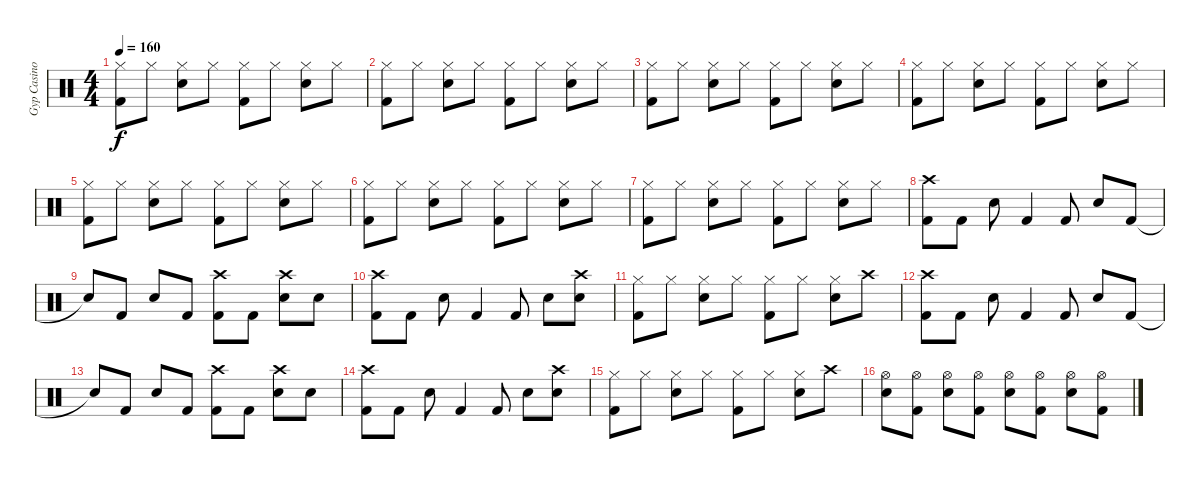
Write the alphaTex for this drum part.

\track ("Gyp Casino" "Gyp Casino") {instrument percussion}
\staff {score}
\articulation defaults
\ts (4 4)
\tempo 160
\clef neutral
\ks c
("Hi-Hat (closed)" "Kick (hit) 2").8{dy f} "Hi-Hat (closed)".8 ("Hi-Hat (closed)" "Snare (hit) 2").8 "Hi-Hat (closed)".8 ("Hi-Hat (closed)" "Kick (hit) 2").8 "Hi-Hat (closed)".8 ("Hi-Hat (closed)" "Snare (hit) 2").8 "Hi-Hat (closed)".8 |
("Hi-Hat (closed)" "Kick (hit) 2").8 "Hi-Hat (closed)".8 ("Hi-Hat (closed)" "Snare (hit) 2").8 "Hi-Hat (closed)".8 ("Hi-Hat (closed)" "Kick (hit) 2").8 "Hi-Hat (closed)".8 ("Hi-Hat (closed)" "Snare (hit) 2").8 "Hi-Hat (closed)".8 |
("Hi-Hat (closed)" "Kick (hit) 2").8 "Hi-Hat (closed)".8 ("Hi-Hat (closed)" "Snare (hit) 2").8 "Hi-Hat (closed)".8 ("Hi-Hat (closed)" "Kick (hit) 2").8 "Hi-Hat (closed)".8 ("Hi-Hat (closed)" "Snare (hit) 2").8 "Hi-Hat (closed)".8 |
("Hi-Hat (closed)" "Kick (hit) 2").8 "Hi-Hat (closed)".8 ("Hi-Hat (closed)" "Snare (hit) 2").8 "Hi-Hat (closed)".8 ("Hi-Hat (closed)" "Kick (hit) 2").8 "Hi-Hat (closed)".8 ("Hi-Hat (closed)" "Snare (hit) 2").8 "Hi-Hat (closed)".8 |
("Hi-Hat (closed)" "Kick (hit) 2").8 "Hi-Hat (closed)".8 ("Hi-Hat (closed)" "Snare (hit) 2").8 "Hi-Hat (closed)".8 ("Hi-Hat (closed)" "Kick (hit) 2").8 "Hi-Hat (closed)".8 ("Hi-Hat (closed)" "Snare (hit) 2").8 "Hi-Hat (closed)".8 |
("Hi-Hat (closed)" "Kick (hit) 2").8 "Hi-Hat (closed)".8 ("Hi-Hat (closed)" "Snare (hit) 2").8 "Hi-Hat (closed)".8 ("Hi-Hat (closed)" "Kick (hit) 2").8 "Hi-Hat (closed)".8 ("Hi-Hat (closed)" "Snare (hit) 2").8 "Hi-Hat (closed)".8 |
("Hi-Hat (closed)" "Kick (hit) 2").8 "Hi-Hat (closed)".8 ("Hi-Hat (closed)" "Snare (hit) 2").8 "Hi-Hat (closed)".8 ("Hi-Hat (closed)" "Kick (hit) 2").8 "Hi-Hat (closed)".8 ("Hi-Hat (closed)" "Snare (hit) 2").8 "Hi-Hat (closed)".8 |
("Crash high (hit)" "Kick (hit) 2").8 "Kick (hit) 2".8 "Snare (hit) 2".8 "Kick (hit) 2".4 "Kick (hit) 2".8 "Snare (hit) 2".8 "Kick (hit) 2".8 |
"Snare (hit)"{t}.8 "Kick (hit) 2".8 "Snare (hit) 2".8 "Kick (hit) 2".8 ("Crash high (hit)" "Kick (hit) 2").8 "Kick (hit) 2".8 ("Crash high (hit)" "Snare (hit) 2").8 "Snare (hit) 2".8 |
("Crash high (hit)" "Kick (hit) 2").8 "Kick (hit) 2".8 "Snare (hit) 2".8 "Kick (hit) 2".4 "Kick (hit) 2".8 "Snare (hit) 2".8 ("Crash high (hit)" "Snare (hit) 2").8 |
("Hi-Hat (closed)" "Kick (hit) 2").8 "Hi-Hat (closed)".8 ("Hi-Hat (closed)" "Snare (hit) 2").8 "Hi-Hat (closed)".8 ("Hi-Hat (closed)" "Kick (hit) 2").8 "Hi-Hat (closed)".8 ("Hi-Hat (closed)" "Snare (hit) 2").8 "Crash high (hit)".8 |
("Crash high (hit)" "Kick (hit) 2").8 "Kick (hit) 2".8 "Snare (hit) 2".8 "Kick (hit) 2".4 "Kick (hit) 2".8 "Snare (hit) 2".8 "Kick (hit) 2".8 |
"Snare (hit)"{t}.8 "Kick (hit) 2".8 "Snare (hit) 2".8 "Kick (hit) 2".8 ("Crash high (hit)" "Kick (hit) 2").8 "Kick (hit) 2".8 ("Crash high (hit)" "Snare (hit) 2").8 "Snare (hit) 2".8 |
("Crash high (hit)" "Kick (hit) 2").8 "Kick (hit) 2".8 "Snare (hit) 2".8 "Kick (hit) 2".4 "Kick (hit) 2".8 "Snare (hit) 2".8 ("Crash high (hit)" "Snare (hit) 2").8 |
("Hi-Hat (closed)" "Kick (hit) 2").8 "Hi-Hat (closed)".8 ("Hi-Hat (closed)" "Snare (hit) 2").8 "Hi-Hat (closed)".8 ("Hi-Hat (closed)" "Kick (hit) 2").8 "Hi-Hat (closed)".8 ("Hi-Hat (closed)" "Snare (hit) 2").8 "Crash high (hit)".8 |
("Hi-Hat (open)" "Snare (hit) 2").8 ("Hi-Hat (open)" "Kick (hit) 2").8 ("Hi-Hat (open)" "Snare (hit) 2").8 ("Hi-Hat (open)" "Kick (hit) 2").8 ("Hi-Hat (open)" "Snare (hit) 2").8 ("Hi-Hat (open)" "Kick (hit) 2").8 ("Hi-Hat (open)" "Snare (hit) 2").8 ("Hi-Hat (open)" "Kick (hit) 2").8
